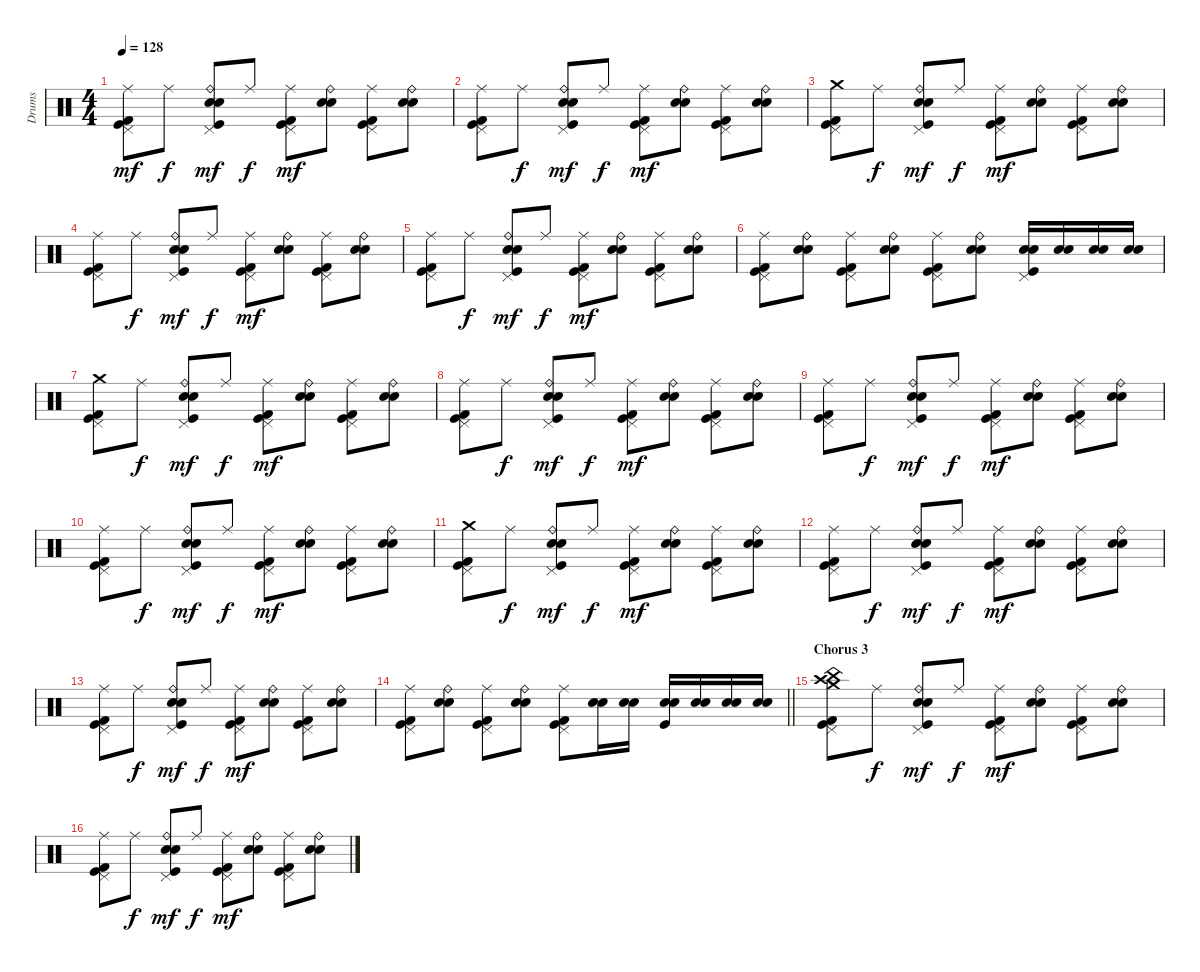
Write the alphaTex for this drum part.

\track ("Drums" "Drums") {instrument percussion}
\staff {score}
\articulation defaults
\ts (4 4)
\tempo 128
\clef neutral
\ks c
("Ride (middle)" "Pedal Hi-Hat (hit)" "Kick (hit) 2" "Kick (hit)").8{dy mf} "Ride (middle)".8{dy f} ("Ride (bell)" "Pedal Hi-Hat (hit)" "Snare (hit) 2" "Electric Snare (hit)" "Kick (hit)").8{dy mf} "Ride (middle)".8{dy f} ("Ride (middle)" "Pedal Hi-Hat (hit)" "Kick (hit) 2" "Kick (hit)").8{dy mf} ("Ride (bell)" "Snare (hit) 2" "Electric Snare (hit)").8 ("Ride (middle)" "Pedal Hi-Hat (hit)" "Kick (hit) 2" "Kick (hit)").8 ("Ride (bell)" "Snare (hit) 2" "Electric Snare (hit)").8 |
("Ride (middle)" "Pedal Hi-Hat (hit)" "Kick (hit) 2" "Kick (hit)").8 "Ride (middle)".8{dy f} ("Ride (bell)" "Pedal Hi-Hat (hit)" "Snare (hit) 2" "Electric Snare (hit)" "Kick (hit)").8{dy mf} "Ride (middle)".8{dy f} ("Ride (middle)" "Pedal Hi-Hat (hit)" "Kick (hit) 2" "Kick (hit)").8{dy mf} ("Ride (bell)" "Snare (hit) 2" "Electric Snare (hit)").8 ("Ride (middle)" "Pedal Hi-Hat (hit)" "Kick (hit) 2" "Kick (hit)").8 ("Ride (bell)" "Snare (hit) 2" "Electric Snare (hit)").8 |
("Crash medium (hit)" "Pedal Hi-Hat (hit)" "Kick (hit) 2" "Kick (hit)").8 "Ride (middle)".8{dy f} ("Ride (bell)" "Pedal Hi-Hat (hit)" "Snare (hit) 2" "Electric Snare (hit)" "Kick (hit)").8{dy mf} "Ride (middle)".8{dy f} ("Ride (middle)" "Pedal Hi-Hat (hit)" "Kick (hit) 2" "Kick (hit)").8{dy mf} ("Ride (bell)" "Snare (hit) 2" "Electric Snare (hit)").8 ("Ride (middle)" "Pedal Hi-Hat (hit)" "Kick (hit) 2" "Kick (hit)").8 ("Ride (bell)" "Snare (hit) 2" "Electric Snare (hit)").8 |
("Ride (middle)" "Pedal Hi-Hat (hit)" "Kick (hit) 2" "Kick (hit)").8 "Ride (middle)".8{dy f} ("Ride (bell)" "Pedal Hi-Hat (hit)" "Snare (hit) 2" "Electric Snare (hit)" "Kick (hit)").8{dy mf} "Ride (middle)".8{dy f} ("Ride (middle)" "Pedal Hi-Hat (hit)" "Kick (hit) 2" "Kick (hit)").8{dy mf} ("Ride (bell)" "Snare (hit) 2" "Electric Snare (hit)").8 ("Ride (middle)" "Pedal Hi-Hat (hit)" "Kick (hit) 2" "Kick (hit)").8 ("Ride (bell)" "Snare (hit) 2" "Electric Snare (hit)").8 |
("Ride (middle)" "Pedal Hi-Hat (hit)" "Kick (hit) 2" "Kick (hit)").8 "Ride (middle)".8{dy f} ("Ride (bell)" "Pedal Hi-Hat (hit)" "Snare (hit) 2" "Electric Snare (hit)" "Kick (hit)").8{dy mf} "Ride (middle)".8{dy f} ("Ride (middle)" "Pedal Hi-Hat (hit)" "Kick (hit) 2" "Kick (hit)").8{dy mf} ("Ride (bell)" "Snare (hit) 2" "Electric Snare (hit)").8 ("Ride (middle)" "Pedal Hi-Hat (hit)" "Kick (hit) 2" "Kick (hit)").8 ("Ride (bell)" "Snare (hit) 2" "Electric Snare (hit)").8 |
("Ride (middle)" "Pedal Hi-Hat (hit)" "Kick (hit) 2" "Kick (hit)").8 ("Ride (bell)" "Snare (hit) 2" "Electric Snare (hit)").8 ("Ride (middle)" "Pedal Hi-Hat (hit)" "Kick (hit) 2" "Kick (hit)").8 ("Ride (bell)" "Snare (hit) 2" "Electric Snare (hit)").8 ("Ride (middle)" "Pedal Hi-Hat (hit)" "Kick (hit) 2" "Kick (hit)").8 ("Ride (bell)" "Snare (hit) 2" "Electric Snare (hit)").8 ("Pedal Hi-Hat (hit)" "Snare (hit) 2" "Electric Snare (hit)" "Kick (hit)").16 ("Snare (hit) 2" "Electric Snare (hit)").16 ("Snare (hit) 2" "Electric Snare (hit)").16 ("Snare (hit) 2" "Electric Snare (hit)").16 |
("Crash medium (hit)" "Pedal Hi-Hat (hit)" "Kick (hit) 2" "Kick (hit)").8 "Ride (middle)".8{dy f} ("Ride (bell)" "Pedal Hi-Hat (hit)" "Snare (hit) 2" "Electric Snare (hit)" "Kick (hit)").8{dy mf} "Ride (middle)".8{dy f} ("Ride (middle)" "Pedal Hi-Hat (hit)" "Kick (hit) 2" "Kick (hit)").8{dy mf} ("Ride (bell)" "Snare (hit) 2" "Electric Snare (hit)").8 ("Ride (middle)" "Pedal Hi-Hat (hit)" "Kick (hit) 2" "Kick (hit)").8 ("Ride (bell)" "Snare (hit) 2" "Electric Snare (hit)").8 |
("Ride (middle)" "Pedal Hi-Hat (hit)" "Kick (hit) 2" "Kick (hit)").8 "Ride (middle)".8{dy f} ("Ride (bell)" "Pedal Hi-Hat (hit)" "Snare (hit) 2" "Electric Snare (hit)" "Kick (hit)").8{dy mf} "Ride (middle)".8{dy f} ("Ride (middle)" "Pedal Hi-Hat (hit)" "Kick (hit) 2" "Kick (hit)").8{dy mf} ("Ride (bell)" "Snare (hit) 2" "Electric Snare (hit)").8 ("Ride (middle)" "Pedal Hi-Hat (hit)" "Kick (hit) 2" "Kick (hit)").8 ("Ride (bell)" "Snare (hit) 2" "Electric Snare (hit)").8 |
("Ride (middle)" "Pedal Hi-Hat (hit)" "Kick (hit) 2" "Kick (hit)").8 "Ride (middle)".8{dy f} ("Ride (bell)" "Pedal Hi-Hat (hit)" "Snare (hit) 2" "Electric Snare (hit)" "Kick (hit)").8{dy mf} "Ride (middle)".8{dy f} ("Ride (middle)" "Pedal Hi-Hat (hit)" "Kick (hit) 2" "Kick (hit)").8{dy mf} ("Ride (bell)" "Snare (hit) 2" "Electric Snare (hit)").8 ("Ride (middle)" "Pedal Hi-Hat (hit)" "Kick (hit) 2" "Kick (hit)").8 ("Ride (bell)" "Snare (hit) 2" "Electric Snare (hit)").8 |
("Ride (middle)" "Pedal Hi-Hat (hit)" "Kick (hit) 2" "Kick (hit)").8 "Ride (middle)".8{dy f} ("Ride (bell)" "Pedal Hi-Hat (hit)" "Snare (hit) 2" "Electric Snare (hit)" "Kick (hit)").8{dy mf} "Ride (middle)".8{dy f} ("Ride (middle)" "Pedal Hi-Hat (hit)" "Kick (hit) 2" "Kick (hit)").8{dy mf} ("Ride (bell)" "Snare (hit) 2" "Electric Snare (hit)").8 ("Ride (middle)" "Pedal Hi-Hat (hit)" "Kick (hit) 2" "Kick (hit)").8 ("Ride (bell)" "Snare (hit) 2" "Electric Snare (hit)").8 |
("Crash medium (hit)" "Pedal Hi-Hat (hit)" "Kick (hit) 2" "Kick (hit)").8 "Ride (middle)".8{dy f} ("Ride (bell)" "Pedal Hi-Hat (hit)" "Snare (hit) 2" "Electric Snare (hit)" "Kick (hit)").8{dy mf} "Ride (middle)".8{dy f} ("Ride (middle)" "Pedal Hi-Hat (hit)" "Kick (hit) 2" "Kick (hit)").8{dy mf} ("Ride (bell)" "Snare (hit) 2" "Electric Snare (hit)").8 ("Ride (middle)" "Pedal Hi-Hat (hit)" "Kick (hit) 2" "Kick (hit)").8 ("Ride (bell)" "Snare (hit) 2" "Electric Snare (hit)").8 |
("Ride (middle)" "Pedal Hi-Hat (hit)" "Kick (hit) 2" "Kick (hit)").8 "Ride (middle)".8{dy f} ("Ride (bell)" "Pedal Hi-Hat (hit)" "Snare (hit) 2" "Electric Snare (hit)" "Kick (hit)").8{dy mf} "Ride (middle)".8{dy f} ("Ride (middle)" "Pedal Hi-Hat (hit)" "Kick (hit) 2" "Kick (hit)").8{dy mf} ("Ride (bell)" "Snare (hit) 2" "Electric Snare (hit)").8 ("Ride (middle)" "Pedal Hi-Hat (hit)" "Kick (hit) 2" "Kick (hit)").8 ("Ride (bell)" "Snare (hit) 2" "Electric Snare (hit)").8 |
("Ride (middle)" "Pedal Hi-Hat (hit)" "Kick (hit) 2" "Kick (hit)").8 "Ride (middle)".8{dy f} ("Ride (bell)" "Pedal Hi-Hat (hit)" "Snare (hit) 2" "Electric Snare (hit)" "Kick (hit)").8{dy mf} "Ride (middle)".8{dy f} ("Ride (middle)" "Pedal Hi-Hat (hit)" "Kick (hit) 2" "Kick (hit)").8{dy mf} ("Ride (bell)" "Snare (hit) 2" "Electric Snare (hit)").8 ("Ride (middle)" "Pedal Hi-Hat (hit)" "Kick (hit) 2" "Kick (hit)").8 ("Ride (bell)" "Snare (hit) 2" "Electric Snare (hit)").8 |
\barLineRight lightlight
("Ride (middle)" "Pedal Hi-Hat (hit)" "Kick (hit) 2" "Kick (hit)").8 ("Ride (bell)" "Snare (hit) 2" "Electric Snare (hit)").8 ("Ride (middle)" "Pedal Hi-Hat (hit)" "Kick (hit) 2" "Kick (hit)").8 ("Ride (bell)" "Snare (hit) 2" "Electric Snare (hit)").8 ("Ride (middle)" "Pedal Hi-Hat (hit)" "Kick (hit) 2" "Kick (hit)").8 ("Snare (hit) 2" "Electric Snare (hit)").16 ("Snare (hit) 2" "Electric Snare (hit)").16 ("Snare (hit) 2" "Electric Snare (hit)" "Kick (hit)").16 ("Snare (hit) 2" "Electric Snare (hit)").16 ("Snare (hit) 2" "Electric Snare (hit)").16 ("Snare (hit) 2" "Electric Snare (hit)").16 |
\section ("" "Chorus 3")
("Crash high (hit)" "Crash medium (hit)" "Pedal Hi-Hat (hit)" "China (hit)" "Kick (hit) 2" "Kick (hit)").8 "Ride (middle)".8{dy f} ("Ride (bell)" "Pedal Hi-Hat (hit)" "Snare (hit) 2" "Electric Snare (hit)" "Kick (hit)").8{dy mf} "Ride (middle)".8{dy f} ("Ride (middle)" "Pedal Hi-Hat (hit)" "Kick (hit) 2" "Kick (hit)").8{dy mf} ("Ride (bell)" "Snare (hit) 2" "Electric Snare (hit)").8 ("Ride (middle)" "Pedal Hi-Hat (hit)" "Kick (hit) 2" "Kick (hit)").8 ("Ride (bell)" "Snare (hit) 2" "Electric Snare (hit)").8 |
("Ride (middle)" "Pedal Hi-Hat (hit)" "Kick (hit) 2" "Kick (hit)").8 "Ride (middle)".8{dy f} ("Ride (bell)" "Pedal Hi-Hat (hit)" "Snare (hit) 2" "Electric Snare (hit)" "Kick (hit)").8{dy mf} "Ride (middle)".8{dy f} ("Ride (middle)" "Pedal Hi-Hat (hit)" "Kick (hit) 2" "Kick (hit)").8{dy mf} ("Ride (bell)" "Snare (hit) 2" "Electric Snare (hit)").8 ("Ride (middle)" "Pedal Hi-Hat (hit)" "Kick (hit) 2" "Kick (hit)").8 ("Ride (bell)" "Snare (hit) 2" "Electric Snare (hit)").8
